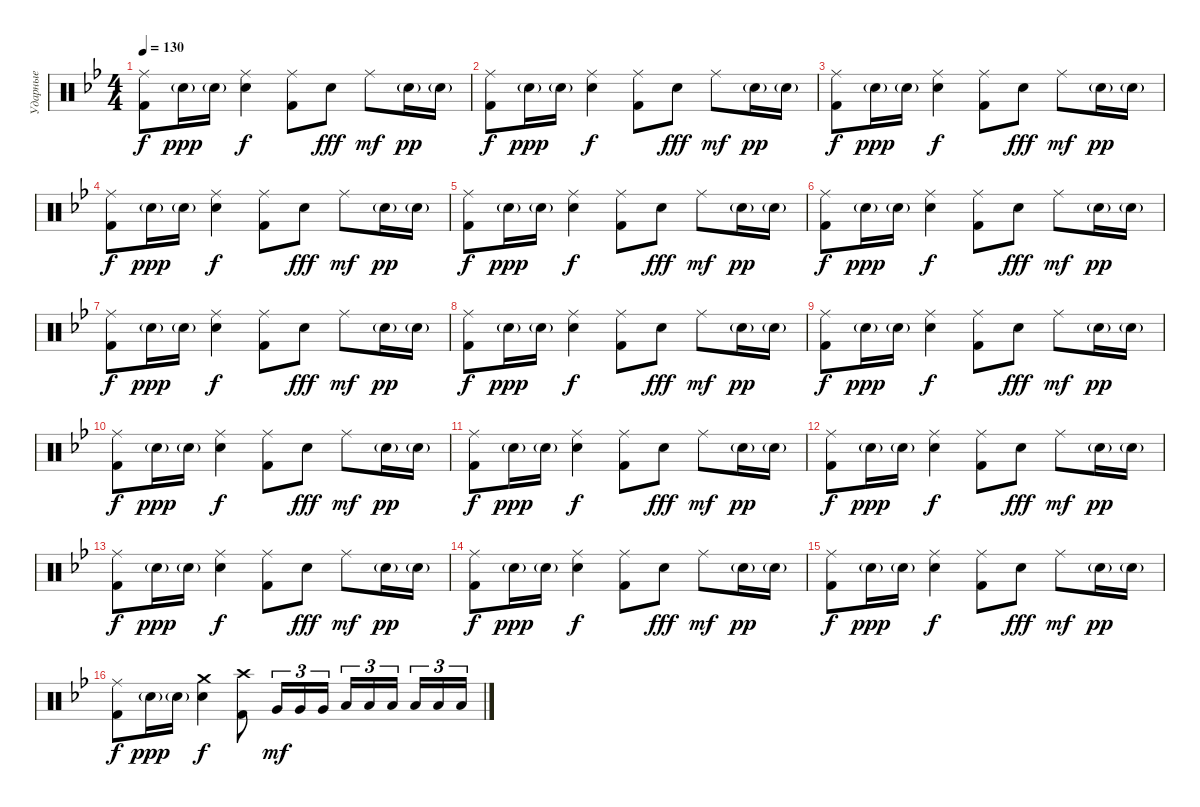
\track ("Ударные" "Ударные") {instrument percussion}
\staff {score}
\articulation defaults
\ts (4 4)
\tempo 130
\clef neutral
\ks gminor
("Ride (middle)" "Kick (hit) 2").8{dy f} "Snare (hit) 2"{g}.16{dy ppp} "Snare (hit) 2"{g}.16 ("Ride (middle)" "Snare (hit) 2").4{dy f} ("Ride (middle)" "Kick (hit) 2").8 "Snare (hit) 2".8{dy fff} "Ride (middle)".8{dy mf} "Snare (hit) 2"{g}.16{dy pp} "Snare (hit) 2"{g}.16 |
("Ride (middle)" "Kick (hit) 2").8{dy f} "Snare (hit) 2"{g}.16{dy ppp} "Snare (hit) 2"{g}.16 ("Ride (middle)" "Snare (hit) 2").4{dy f} ("Ride (middle)" "Kick (hit) 2").8 "Snare (hit) 2".8{dy fff} "Ride (middle)".8{dy mf} "Snare (hit) 2"{g}.16{dy pp} "Snare (hit) 2"{g}.16 |
("Ride (middle)" "Kick (hit) 2").8{dy f} "Snare (hit) 2"{g}.16{dy ppp} "Snare (hit) 2"{g}.16 ("Ride (middle)" "Snare (hit) 2").4{dy f} ("Ride (middle)" "Kick (hit) 2").8 "Snare (hit) 2".8{dy fff} "Ride (middle)".8{dy mf} "Snare (hit) 2"{g}.16{dy pp} "Snare (hit) 2"{g}.16 |
("Ride (middle)" "Kick (hit) 2").8{dy f} "Snare (hit) 2"{g}.16{dy ppp} "Snare (hit) 2"{g}.16 ("Ride (middle)" "Snare (hit) 2").4{dy f} ("Ride (middle)" "Kick (hit) 2").8 "Snare (hit) 2".8{dy fff} "Ride (middle)".8{dy mf} "Snare (hit) 2"{g}.16{dy pp} "Snare (hit) 2"{g}.16 |
("Ride (middle)" "Kick (hit) 2").8{dy f} "Snare (hit) 2"{g}.16{dy ppp} "Snare (hit) 2"{g}.16 ("Ride (middle)" "Snare (hit) 2").4{dy f} ("Ride (middle)" "Kick (hit) 2").8 "Snare (hit) 2".8{dy fff} "Ride (middle)".8{dy mf} "Snare (hit) 2"{g}.16{dy pp} "Snare (hit) 2"{g}.16 |
("Ride (middle)" "Kick (hit) 2").8{dy f} "Snare (hit) 2"{g}.16{dy ppp} "Snare (hit) 2"{g}.16 ("Ride (middle)" "Snare (hit) 2").4{dy f} ("Ride (middle)" "Kick (hit) 2").8 "Snare (hit) 2".8{dy fff} "Ride (middle)".8{dy mf} "Snare (hit) 2"{g}.16{dy pp} "Snare (hit) 2"{g}.16 |
("Ride (middle)" "Kick (hit) 2").8{dy f} "Snare (hit) 2"{g}.16{dy ppp} "Snare (hit) 2"{g}.16 ("Ride (middle)" "Snare (hit) 2").4{dy f} ("Ride (middle)" "Kick (hit) 2").8 "Snare (hit) 2".8{dy fff} "Ride (middle)".8{dy mf} "Snare (hit) 2"{g}.16{dy pp} "Snare (hit) 2"{g}.16 |
("Ride (middle)" "Kick (hit) 2").8{dy f} "Snare (hit) 2"{g}.16{dy ppp} "Snare (hit) 2"{g}.16 ("Ride (middle)" "Snare (hit) 2").4{dy f} ("Ride (middle)" "Kick (hit) 2").8 "Snare (hit) 2".8{dy fff} "Ride (middle)".8{dy mf} "Snare (hit) 2"{g}.16{dy pp} "Snare (hit) 2"{g}.16 |
("Ride (middle)" "Kick (hit) 2").8{dy f} "Snare (hit) 2"{g}.16{dy ppp} "Snare (hit) 2"{g}.16 ("Ride (middle)" "Snare (hit) 2").4{dy f} ("Ride (middle)" "Kick (hit) 2").8 "Snare (hit) 2".8{dy fff} "Ride (middle)".8{dy mf} "Snare (hit) 2"{g}.16{dy pp} "Snare (hit) 2"{g}.16 |
("Ride (middle)" "Kick (hit) 2").8{dy f} "Snare (hit) 2"{g}.16{dy ppp} "Snare (hit) 2"{g}.16 ("Ride (middle)" "Snare (hit) 2").4{dy f} ("Ride (middle)" "Kick (hit) 2").8 "Snare (hit) 2".8{dy fff} "Ride (middle)".8{dy mf} "Snare (hit) 2"{g}.16{dy pp} "Snare (hit) 2"{g}.16 |
("Ride (middle)" "Kick (hit) 2").8{dy f} "Snare (hit) 2"{g}.16{dy ppp} "Snare (hit) 2"{g}.16 ("Ride (middle)" "Snare (hit) 2").4{dy f} ("Ride (middle)" "Kick (hit) 2").8 "Snare (hit) 2".8{dy fff} "Ride (middle)".8{dy mf} "Snare (hit) 2"{g}.16{dy pp} "Snare (hit) 2"{g}.16 |
("Ride (middle)" "Kick (hit) 2").8{dy f} "Snare (hit) 2"{g}.16{dy ppp} "Snare (hit) 2"{g}.16 ("Ride (middle)" "Snare (hit) 2").4{dy f} ("Ride (middle)" "Kick (hit) 2").8 "Snare (hit) 2".8{dy fff} "Ride (middle)".8{dy mf} "Snare (hit) 2"{g}.16{dy pp} "Snare (hit) 2"{g}.16 |
("Ride (middle)" "Kick (hit) 2").8{dy f} "Snare (hit) 2"{g}.16{dy ppp} "Snare (hit) 2"{g}.16 ("Ride (middle)" "Snare (hit) 2").4{dy f} ("Ride (middle)" "Kick (hit) 2").8 "Snare (hit) 2".8{dy fff} "Ride (middle)".8{dy mf} "Snare (hit) 2"{g}.16{dy pp} "Snare (hit) 2"{g}.16 |
("Ride (middle)" "Kick (hit) 2").8{dy f} "Snare (hit) 2"{g}.16{dy ppp} "Snare (hit) 2"{g}.16 ("Ride (middle)" "Snare (hit) 2").4{dy f} ("Ride (middle)" "Kick (hit) 2").8 "Snare (hit) 2".8{dy fff} "Ride (middle)".8{dy mf} "Snare (hit) 2"{g}.16{dy pp} "Snare (hit) 2"{g}.16 |
("Ride (middle)" "Kick (hit) 2").8{dy f} "Snare (hit) 2"{g}.16{dy ppp} "Snare (hit) 2"{g}.16 ("Ride (middle)" "Snare (hit) 2").4{dy f} ("Ride (middle)" "Kick (hit) 2").8 "Snare (hit) 2".8{dy fff} "Ride (middle)".8{dy mf} "Snare (hit) 2"{g}.16{dy pp} "Snare (hit) 2"{g}.16 |
("Ride (middle)" "Kick (hit) 2").8{dy f} "Snare (hit) 2"{g}.16{dy ppp} "Snare (hit) 2"{g}.16 ("Crash medium (hit)" "Snare (hit) 2").4{dy f} ("Crash high (hit)" "Kick (hit) 2").8 "Very Low Tom (hit)".16{tu (3 2) dy mf} "Very Low Tom (hit)".16{tu (3 2)} "Very Low Tom (hit)".16{tu (3 2)} "Low Tom (hit)".16{tu (3 2)} "Low Tom (hit)".16{tu (3 2)} "Low Tom (hit)".16{tu (3 2) beam splitsecondary} "Low Tom (hit)".16{tu (3 2)} "Low Tom (hit)".16{tu (3 2)} "Low Tom (hit)".16{tu (3 2)}
